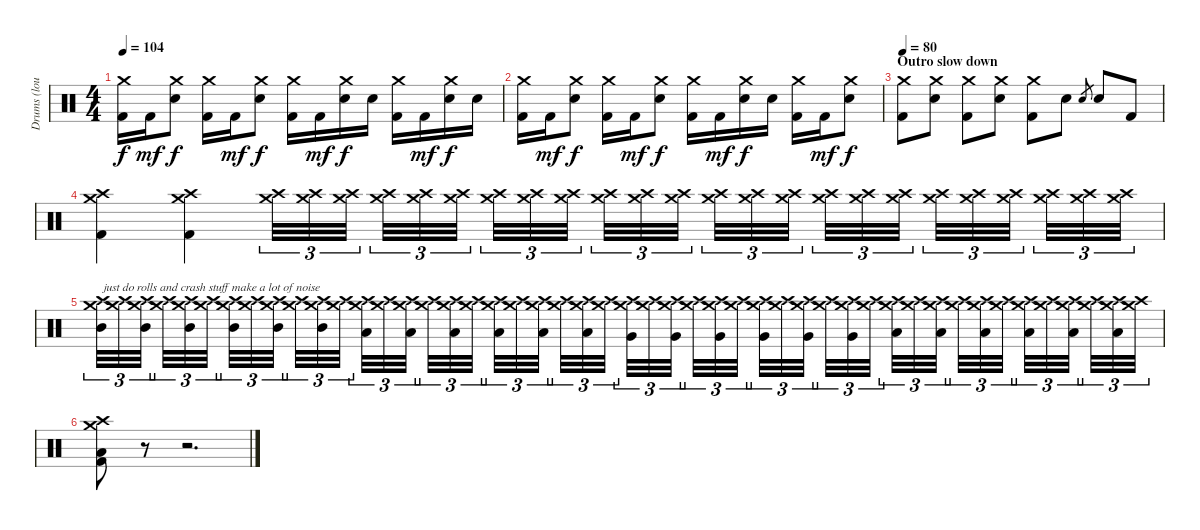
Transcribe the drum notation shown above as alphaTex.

\track ("Drums (loud!)" "Drums (lou") {instrument percussion}
\staff {score}
\articulation defaults
\ts (4 4)
\tempo 104
\clef neutral
\ks c
("Crash medium (hit)" "Kick (hit) 2").16{dy f} "Kick (hit) 2".16{dy mf} ("Crash medium (hit)" "Snare (hit) 2").8{dy f} ("Crash medium (hit)" "Kick (hit) 2").16 "Kick (hit) 2".16{dy mf} ("Crash medium (hit)" "Snare (hit) 2").8{dy f} ("Crash medium (hit)" "Kick (hit) 2").16 "Kick (hit) 2".16{dy mf} ("Crash medium (hit)" "Snare (hit) 2").16{dy f} "Snare (hit) 2".16 ("Crash medium (hit)" "Kick (hit) 2").16 "Kick (hit) 2".16{dy mf} ("Crash medium (hit)" "Snare (hit) 2").16{dy f} "Snare (hit) 2".16 |
("Crash medium (hit)" "Kick (hit) 2").16 "Kick (hit) 2".16{dy mf} ("Crash medium (hit)" "Snare (hit) 2").8{dy f} ("Crash medium (hit)" "Kick (hit) 2").16 "Kick (hit) 2".16{dy mf} ("Crash medium (hit)" "Snare (hit) 2").8{dy f} ("Crash medium (hit)" "Kick (hit) 2").16 "Kick (hit) 2".16{dy mf} ("Crash medium (hit)" "Snare (hit) 2").16{dy f} "Snare (hit) 2".16 ("Crash medium (hit)" "Kick (hit) 2").16 "Kick (hit) 2".16{dy mf} ("Crash medium (hit)" "Snare (hit) 2").8{dy f} |
\section ("" "Outro slow down")
\tempo 80
("Crash medium (hit)" "Kick (hit) 2").8 ("Crash medium (hit)" "Snare (hit) 2").8 ("Crash medium (hit)" "Kick (hit) 2").8 ("Crash medium (hit)" "Snare (hit) 2").8 ("Crash medium (hit)" "Kick (hit) 2").8 "Snare (hit) 2".8 "Snare (hit) 2".8{gr} "Snare (hit) 2".8 "Kick (hit) 2".8 |
("Crash high (hit)" "Crash medium (hit)" "Kick (hit) 2").4 ("Crash high (hit)" "Crash medium (hit)" "Kick (hit) 2").4 ("Crash high (hit)" "Crash medium (hit)").32{tu (3 2)} ("Crash high (hit)" "Crash medium (hit)").32{tu (3 2)} ("Crash high (hit)" "Crash medium (hit)").32{tu (3 2)} ("Crash high (hit)" "Crash medium (hit)").32{tu (3 2)} ("Crash high (hit)" "Crash medium (hit)").32{tu (3 2)} ("Crash high (hit)" "Crash medium (hit)").32{tu (3 2)} ("Crash high (hit)" "Crash medium (hit)").32{tu (3 2)} ("Crash high (hit)" "Crash medium (hit)").32{tu (3 2)} ("Crash high (hit)" "Crash medium (hit)").32{tu (3 2)} ("Crash high (hit)" "Crash medium (hit)").32{tu (3 2)} ("Crash high (hit)" "Crash medium (hit)").32{tu (3 2)} ("Crash high (hit)" "Crash medium (hit)").32{tu (3 2)} ("Crash high (hit)" "Crash medium (hit)").32{tu (3 2)} ("Crash high (hit)" "Crash medium (hit)").32{tu (3 2)} ("Crash high (hit)" "Crash medium (hit)").32{tu (3 2)} ("Crash high (hit)" "Crash medium (hit)").32{tu (3 2)} ("Crash high (hit)" "Crash medium (hit)").32{tu (3 2)} ("Crash high (hit)" "Crash medium (hit)").32{tu (3 2)} ("Crash high (hit)" "Crash medium (hit)").32{tu (3 2)} ("Crash high (hit)" "Crash medium (hit)").32{tu (3 2)} ("Crash high (hit)" "Crash medium (hit)").32{tu (3 2)} ("Crash high (hit)" "Crash medium (hit)").32{tu (3 2)} ("Crash high (hit)" "Crash medium (hit)").32{tu (3 2)} ("Crash high (hit)" "Crash medium (hit)").32{tu (3 2)} |
("Crash high (hit)" "Crash medium (hit)" "Mid Tom (hit)").32{tu (3 2) txt "just do rolls and crash stuff make a lot of noise"} ("Crash high (hit)" "Crash medium (hit)").32{tu (3 2)} ("Crash high (hit)" "Crash medium (hit)" "Mid Tom (hit)").32{tu (3 2)} ("Crash high (hit)" "Crash medium (hit)").32{tu (3 2)} ("Crash high (hit)" "Crash medium (hit)" "Mid Tom (hit)").32{tu (3 2)} ("Crash high (hit)" "Crash medium (hit)").32{tu (3 2)} ("Crash high (hit)" "Crash medium (hit)" "Mid Tom (hit)").32{tu (3 2)} ("Crash high (hit)" "Crash medium (hit)").32{tu (3 2)} ("Crash high (hit)" "Crash medium (hit)" "Mid Tom (hit)").32{tu (3 2)} ("Crash high (hit)" "Crash medium (hit)").32{tu (3 2)} ("Crash high (hit)" "Crash medium (hit)" "Mid Tom (hit)").32{tu (3 2)} ("Crash high (hit)" "Crash medium (hit)").32{tu (3 2)} ("Crash high (hit)" "Crash medium (hit)" "Low Tom (hit)").32{tu (3 2)} ("Crash high (hit)" "Crash medium (hit)").32{tu (3 2)} ("Crash high (hit)" "Crash medium (hit)" "Low Tom (hit)").32{tu (3 2)} ("Crash high (hit)" "Crash medium (hit)").32{tu (3 2)} ("Crash high (hit)" "Crash medium (hit)" "Low Tom (hit)").32{tu (3 2)} ("Crash high (hit)" "Crash medium (hit)").32{tu (3 2)} ("Crash high (hit)" "Crash medium (hit)" "Low Tom (hit)").32{tu (3 2)} ("Crash high (hit)" "Crash medium (hit)").32{tu (3 2)} ("Crash high (hit)" "Crash medium (hit)" "Low Tom (hit)").32{tu (3 2)} ("Crash high (hit)" "Crash medium (hit)").32{tu (3 2)} ("Crash high (hit)" "Crash medium (hit)" "Low Tom (hit)").32{tu (3 2)} ("Crash high (hit)" "Crash medium (hit)").32{tu (3 2)} ("Crash high (hit)" "Crash medium (hit)" "Very Low Tom (hit)").32{tu (3 2)} ("Crash high (hit)" "Crash medium (hit)").32{tu (3 2)} ("Crash high (hit)" "Crash medium (hit)" "Very Low Tom (hit)").32{tu (3 2)} ("Crash high (hit)" "Crash medium (hit)").32{tu (3 2)} ("Crash high (hit)" "Crash medium (hit)" "Very Low Tom (hit)").32{tu (3 2)} ("Crash high (hit)" "Crash medium (hit)").32{tu (3 2)} ("Crash high (hit)" "Crash medium (hit)" "Very Low Tom (hit)").32{tu (3 2)} ("Crash high (hit)" "Crash medium (hit)").32{tu (3 2)} ("Crash high (hit)" "Crash medium (hit)" "Very Low Tom (hit)").32{tu (3 2)} ("Crash high (hit)" "Crash medium (hit)").32{tu (3 2)} ("Crash high (hit)" "Crash medium (hit)" "Very Low Tom (hit)").32{tu (3 2)} ("Crash high (hit)" "Crash medium (hit)").32{tu (3 2)} ("Crash high (hit)" "Crash medium (hit)" "Low Floor Tom (hit)").32{tu (3 2)} ("Crash high (hit)" "Crash medium (hit)").32{tu (3 2)} ("Crash high (hit)" "Crash medium (hit)" "Low Floor Tom (hit)").32{tu (3 2)} ("Crash high (hit)" "Crash medium (hit)").32{tu (3 2)} ("Crash high (hit)" "Crash medium (hit)" "Low Floor Tom (hit)").32{tu (3 2)} ("Crash high (hit)" "Crash medium (hit)").32{tu (3 2)} ("Crash high (hit)" "Crash medium (hit)" "Low Floor Tom (hit)").32{tu (3 2)} ("Crash high (hit)" "Crash medium (hit)").32{tu (3 2)} ("Crash high (hit)" "Crash medium (hit)" "Low Floor Tom (hit)").32{tu (3 2)} ("Crash high (hit)" "Crash medium (hit)").32{tu (3 2)} ("Crash high (hit)" "Crash medium (hit)" "Low Floor Tom (hit)").32{tu (3 2)} ("Crash high (hit)" "Crash medium (hit)").32{tu (3 2)} |
("Crash high (hit)" "Crash medium (hit)" "Low Floor Tom (hit)" "Kick (hit) 2").8 r.8 r.2{d}
